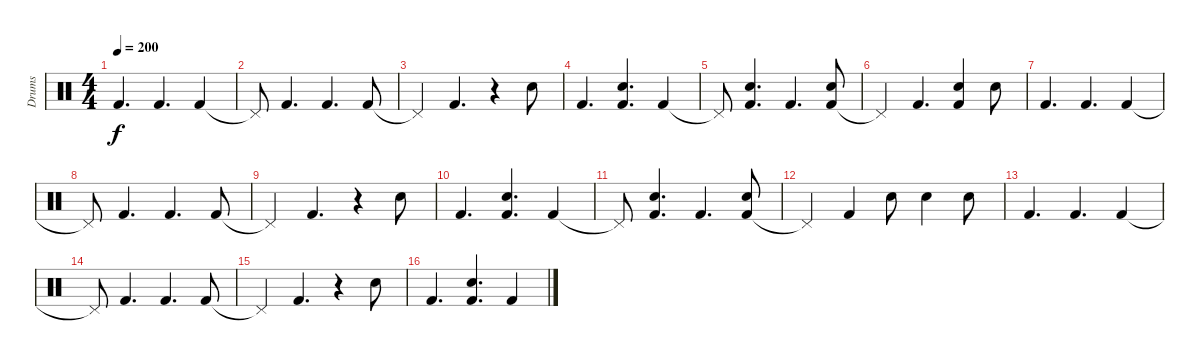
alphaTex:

\track ("Drums" "Drums") {instrument percussion}
\staff {score}
\articulation defaults
\ts (4 4)
\tempo 200
\clef neutral
\ks c "Kick (hit) 2".4{d dy f} "Kick (hit) 2".4{d} "Kick (hit) 2".4
|
"Pedal Hi-Hat (hit)"{t}.8 "Kick (hit) 2".4{d} "Kick (hit) 2".4{d} "Kick (hit) 2".8 |
"Pedal Hi-Hat (hit)"{t}.4 "Kick (hit) 2".4{d} r.4 "Snare (hit) 2".8 |
"Kick (hit) 2".4{d} ("Kick (hit) 2" "Snare (hit) 2").4{d} "Kick (hit) 2".4 |
"Pedal Hi-Hat (hit)"{t}.8 ("Kick (hit) 2" "Snare (hit) 2").4{d} "Kick (hit) 2".4{d} ("Kick (hit) 2" "Snare (hit) 2").8 |
"Pedal Hi-Hat (hit)"{t}.4 "Kick (hit) 2".4{d} ("Kick (hit) 2" "Snare (hit) 2").4 "Snare (hit) 2".8 |
"Kick (hit) 2".4{d} "Kick (hit) 2".4{d} "Kick (hit) 2".4 |
"Pedal Hi-Hat (hit)"{t}.8 "Kick (hit) 2".4{d} "Kick (hit) 2".4{d} "Kick (hit) 2".8 |
"Pedal Hi-Hat (hit)"{t}.4 "Kick (hit) 2".4{d} r.4 "Snare (hit) 2".8 |
"Kick (hit) 2".4{d} ("Kick (hit) 2" "Snare (hit) 2").4{d} "Kick (hit) 2".4 |
"Pedal Hi-Hat (hit)"{t}.8 ("Kick (hit) 2" "Snare (hit) 2").4{d} "Kick (hit) 2".4{d} ("Kick (hit) 2" "Snare (hit) 2").8 |
"Pedal Hi-Hat (hit)"{t}.4 "Kick (hit) 2".4 "Snare (hit) 2".8 "Snare (hit) 2".4 "Snare (hit) 2".8 |
"Kick (hit) 2".4{d} "Kick (hit) 2".4{d} "Kick (hit) 2".4 |
"Pedal Hi-Hat (hit)"{t}.8 "Kick (hit) 2".4{d} "Kick (hit) 2".4{d} "Kick (hit) 2".8 |
"Pedal Hi-Hat (hit)"{t}.4 "Kick (hit) 2".4{d} r.4 "Snare (hit) 2".8 |
"Kick (hit) 2".4{d} ("Kick (hit) 2" "Snare (hit) 2").4{d} "Kick (hit) 2".4
